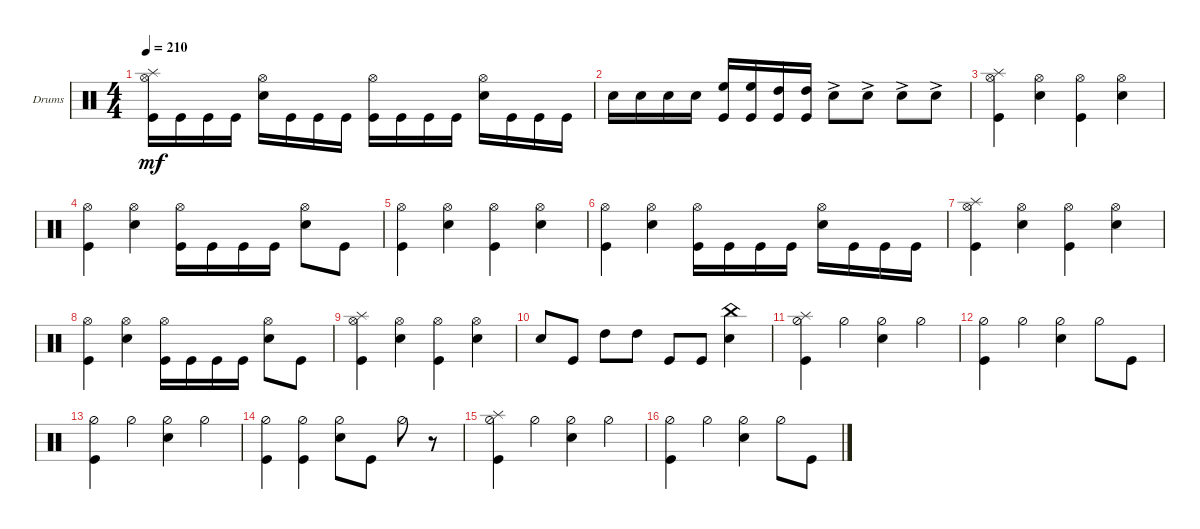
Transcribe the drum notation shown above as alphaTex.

\bracketExtendMode groupsimilarinstruments
\firstSystemTrackNameOrientation horizontal
\otherSystemsTrackNameOrientation horizontal
\track ("Drumkit" "Drums") {instrument percussion}
\staff {score}
\articulation defaults
\ts (4 4)
\tempo 210
\clef neutral
\ks c
("Kick (hit)" "Hi-Hat (open)" "Splash (hit)").16{dy mf} "Kick (hit)".16 "Kick (hit)".16 "Kick (hit)".16 ("Snare (hit) 2" "Hi-Hat (open)").16 "Kick (hit)".16 "Kick (hit)".16 "Kick (hit)".16 ("Kick (hit)" "Hi-Hat (open)").16 "Kick (hit)".16 "Kick (hit)".16 "Kick (hit)".16 ("Snare (hit) 2" "Hi-Hat (open)").16 "Kick (hit)".16 "Kick (hit)".16 "Kick (hit)".16 |
"Snare (hit) 2".16 "Snare (hit) 2".16 "Snare (hit) 2".16 "Snare (hit) 2".16 ("High Floor Tom (hit)" "Kick (hit)").16 ("High Floor Tom (hit)" "Kick (hit)").16 ("High Tom (hit)" "Kick (hit)").16 ("High Tom (hit)" "Kick (hit)").16 "Snare (hit) 2"{ac}.8 "Snare (hit) 2"{ac}.8 "Snare (hit) 2"{ac}.8 "Snare (hit) 2"{ac}.8 |
("Kick (hit)" "Splash (hit)" "Hi-Hat (open)").4 ("Snare (hit) 2" "Hi-Hat (open)").4 ("Kick (hit)" "Hi-Hat (open)").4 ("Snare (hit) 2" "Hi-Hat (open)").4 |
("Kick (hit)" "Hi-Hat (open)").4 ("Snare (hit) 2" "Hi-Hat (open)").4 ("Kick (hit)" "Hi-Hat (open)").16 "Kick (hit)".16 "Kick (hit)".16 "Kick (hit)".16 ("Snare (hit) 2" "Hi-Hat (open)").8 "Kick (hit)".8 |
("Kick (hit)" "Hi-Hat (open)").4 ("Snare (hit) 2" "Hi-Hat (open)").4 ("Kick (hit)" "Hi-Hat (open)").4 ("Snare (hit) 2" "Hi-Hat (open)").4 |
("Kick (hit)" "Hi-Hat (open)").4 ("Snare (hit) 2" "Hi-Hat (open)").4 ("Kick (hit)" "Hi-Hat (open)").16 "Kick (hit)".16 "Kick (hit)".16 "Kick (hit)".16 ("Snare (hit) 2" "Hi-Hat (open)").16 "Kick (hit)".16 "Kick (hit)".16 "Kick (hit)".16 |
("Kick (hit)" "Splash (hit)" "Hi-Hat (open)").4 ("Snare (hit) 2" "Hi-Hat (open)").4 ("Kick (hit)" "Hi-Hat (open)").4 ("Snare (hit) 2" "Hi-Hat (open)").4 |
("Kick (hit)" "Hi-Hat (open)").4 ("Snare (hit) 2" "Hi-Hat (open)").4 ("Kick (hit)" "Hi-Hat (open)").16 "Kick (hit)".16 "Kick (hit)".16 "Kick (hit)".16 ("Snare (hit) 2" "Hi-Hat (open)").8 "Kick (hit)".8 |
("Kick (hit)" "Splash (hit)" "Hi-Hat (open)").4 ("Snare (hit) 2" "Hi-Hat (open)").4 ("Kick (hit)" "Hi-Hat (open)").4 ("Snare (hit) 2" "Hi-Hat (open)").4 |
"Snare (hit) 2".8 "Kick (hit)".8 "High Tom (hit)".8 "High Tom (hit)".8 "Kick (hit)".8 "Kick (hit)".8 ("Snare (hit) 2" "China (hit)").4 |
("Kick (hit)" "Splash (hit)" "Hi-Hat (half)").4 "Hi-Hat (half)".4 ("Snare (hit) 2" "Hi-Hat (half)").4 "Hi-Hat (half)".4 |
("Kick (hit)" "Hi-Hat (half)").4 "Hi-Hat (half)".4 ("Snare (hit) 2" "Hi-Hat (half)").4 "Hi-Hat (half)".8 "Kick (hit)".8 |
("Kick (hit)" "Hi-Hat (half)").4 "Hi-Hat (half)".4 ("Snare (hit) 2" "Hi-Hat (half)").4 "Hi-Hat (half)".4 |
("Kick (hit)" "Hi-Hat (half)").4 ("Kick (hit)" "Hi-Hat (half)").4 ("Snare (hit) 2" "Hi-Hat (half)").8 "Kick (hit)".8 "Hi-Hat (half)".8 r.8 |
("Kick (hit)" "Splash (hit)" "Hi-Hat (half)").4 "Hi-Hat (half)".4 ("Snare (hit) 2" "Hi-Hat (half)").4 "Hi-Hat (half)".4 |
("Kick (hit)" "Hi-Hat (half)").4 "Hi-Hat (half)".4 ("Snare (hit) 2" "Hi-Hat (half)").4 "Hi-Hat (half)".8 "Kick (hit)".8
